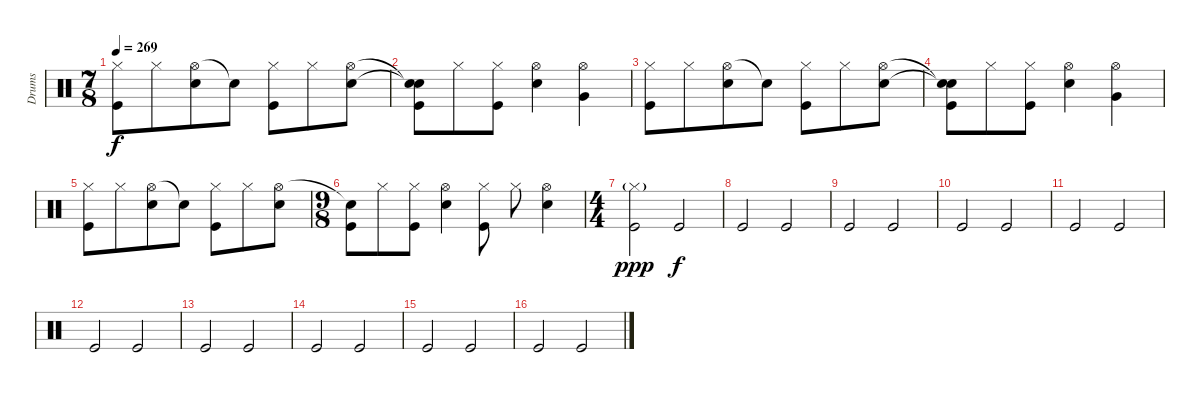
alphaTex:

\track ("Drums" "Drums") {instrument percussion}
\staff {score}
\articulation defaults
\ts (7 8)
\tempo 269
\clef neutral
\ks c
("Hi-Hat (closed)" "Kick (hit)").8{dy f} "Hi-Hat (closed)".8 ("Hi-Hat (open)" "Electric Snare (hit)").8 "Snare (hit)"{t}.8 ("Hi-Hat (closed)" "Kick (hit)").8 "Hi-Hat (closed)".8 ("Hi-Hat (open)" "Electric Snare (hit)").8 |
("Snare (hit)"{t} "Snare (hit)"{t} "Kick (hit)").8 "Hi-Hat (closed)".8 ("Hi-Hat (closed)" "Kick (hit)").8 ("Hi-Hat (open)" "Electric Snare (hit)").4 ("Hi-Hat (open)" "Very Low Tom (hit)").4 |
("Hi-Hat (closed)" "Kick (hit)").8 "Hi-Hat (closed)".8 ("Hi-Hat (open)" "Electric Snare (hit)").8 "Snare (hit)"{t}.8 ("Hi-Hat (closed)" "Kick (hit)").8 "Hi-Hat (closed)".8 ("Hi-Hat (open)" "Electric Snare (hit)").8 |
("Snare (hit)"{t} "Snare (hit)"{t} "Kick (hit)").8 "Hi-Hat (closed)".8 ("Hi-Hat (closed)" "Kick (hit)").8 ("Hi-Hat (open)" "Electric Snare (hit)").4 ("Hi-Hat (open)" "Very Low Tom (hit)").4 |
("Hi-Hat (closed)" "Kick (hit)").8 "Hi-Hat (closed)".8 ("Hi-Hat (open)" "Electric Snare (hit)").8 "Snare (hit)"{t}.8 ("Hi-Hat (closed)" "Kick (hit)").8 "Hi-Hat (closed)".8 ("Hi-Hat (open)" "Electric Snare (hit)").8 |
\ts (9 8)
("Snare (hit)"{t} "Kick (hit)").8 "Hi-Hat (closed)".8 ("Hi-Hat (closed)" "Kick (hit)").8 ("Hi-Hat (open)" "Electric Snare (hit)").4 ("Hi-Hat (closed)" "Kick (hit)").8 "Hi-Hat (closed)".8 ("Hi-Hat (open)" "Electric Snare (hit)").4 |
\ts (4 4)
("Hi-Hat (closed)"{g} "Kick (hit)").2{dy ppp} "Kick (hit)".2{dy f} |
"Kick (hit)".2 "Kick (hit)".2 |
"Kick (hit)".2 "Kick (hit)".2 |
"Kick (hit)".2 "Kick (hit)".2 |
"Kick (hit)".2 "Kick (hit)".2 |
"Kick (hit)".2 "Kick (hit)".2 |
"Kick (hit)".2 "Kick (hit)".2 |
"Kick (hit)".2 "Kick (hit)".2 |
"Kick (hit)".2 "Kick (hit)".2 |
"Kick (hit)".2 "Kick (hit)".2
